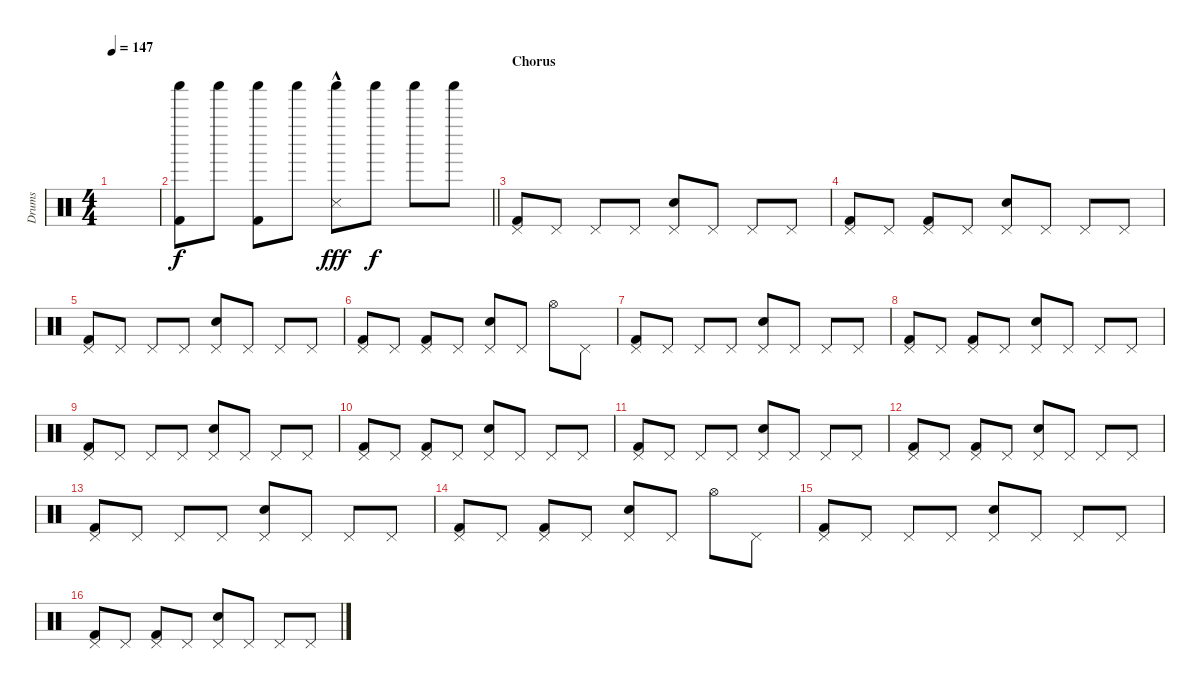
\track ("Drums" "Drums") {instrument percussion}
\staff {score}
\articulation defaults
\ts (4 4)
\tempo 147
\clef neutral
\ks c
|
\barLineRight lightlight
("Kick (hit) 2" "Shaker (hit)").8 "Shaker (hit)".8 ("Kick (hit) 2" "Shaker (hit)").8 "Shaker (hit)".8 ("Snare (side stick) 3"{hac} "Shaker (hit)").8{dy fff} "Shaker (hit)".8{dy f} "Shaker (hit)".8 "Shaker (hit)".8 |
\section ("" "Chorus")
("Kick (hit) 2" "Pedal Hi-Hat (hit)").8 "Pedal Hi-Hat (hit)".8 "Pedal Hi-Hat (hit)".8 "Pedal Hi-Hat (hit)".8 ("Electric Snare (hit)" "Pedal Hi-Hat (hit)").8 "Pedal Hi-Hat (hit)".8 "Pedal Hi-Hat (hit)".8 "Pedal Hi-Hat (hit)".8 |
("Kick (hit) 2" "Pedal Hi-Hat (hit)").8 "Pedal Hi-Hat (hit)".8 ("Kick (hit) 2" "Pedal Hi-Hat (hit)").8 "Pedal Hi-Hat (hit)".8 ("Electric Snare (hit)" "Pedal Hi-Hat (hit)").8 "Pedal Hi-Hat (hit)".8 "Pedal Hi-Hat (hit)".8 "Pedal Hi-Hat (hit)".8 |
("Kick (hit) 2" "Pedal Hi-Hat (hit)").8 "Pedal Hi-Hat (hit)".8 "Pedal Hi-Hat (hit)".8 "Pedal Hi-Hat (hit)".8 ("Electric Snare (hit)" "Pedal Hi-Hat (hit)").8 "Pedal Hi-Hat (hit)".8 "Pedal Hi-Hat (hit)".8 "Pedal Hi-Hat (hit)".8 |
("Kick (hit) 2" "Pedal Hi-Hat (hit)").8 "Pedal Hi-Hat (hit)".8 ("Kick (hit) 2" "Pedal Hi-Hat (hit)").8 "Pedal Hi-Hat (hit)".8 ("Electric Snare (hit)" "Pedal Hi-Hat (hit)").8 "Pedal Hi-Hat (hit)".8 "Hi-Hat (open)".8 "Pedal Hi-Hat (hit)".8 |
("Kick (hit) 2" "Pedal Hi-Hat (hit)").8 "Pedal Hi-Hat (hit)".8 "Pedal Hi-Hat (hit)".8 "Pedal Hi-Hat (hit)".8 ("Electric Snare (hit)" "Pedal Hi-Hat (hit)").8 "Pedal Hi-Hat (hit)".8 "Pedal Hi-Hat (hit)".8 "Pedal Hi-Hat (hit)".8 |
("Kick (hit) 2" "Pedal Hi-Hat (hit)").8 "Pedal Hi-Hat (hit)".8 ("Kick (hit) 2" "Pedal Hi-Hat (hit)").8 "Pedal Hi-Hat (hit)".8 ("Electric Snare (hit)" "Pedal Hi-Hat (hit)").8 "Pedal Hi-Hat (hit)".8 "Pedal Hi-Hat (hit)".8 "Pedal Hi-Hat (hit)".8 |
("Kick (hit) 2" "Pedal Hi-Hat (hit)").8 "Pedal Hi-Hat (hit)".8 "Pedal Hi-Hat (hit)".8 "Pedal Hi-Hat (hit)".8 ("Electric Snare (hit)" "Pedal Hi-Hat (hit)").8 "Pedal Hi-Hat (hit)".8 "Pedal Hi-Hat (hit)".8 "Pedal Hi-Hat (hit)".8 |
("Kick (hit) 2" "Pedal Hi-Hat (hit)").8 "Pedal Hi-Hat (hit)".8 ("Kick (hit) 2" "Pedal Hi-Hat (hit)").8 "Pedal Hi-Hat (hit)".8 ("Electric Snare (hit)" "Pedal Hi-Hat (hit)").8 "Pedal Hi-Hat (hit)".8 "Pedal Hi-Hat (hit)".8 "Pedal Hi-Hat (hit)".8 |
("Kick (hit) 2" "Pedal Hi-Hat (hit)").8 "Pedal Hi-Hat (hit)".8 "Pedal Hi-Hat (hit)".8 "Pedal Hi-Hat (hit)".8 ("Electric Snare (hit)" "Pedal Hi-Hat (hit)").8 "Pedal Hi-Hat (hit)".8 "Pedal Hi-Hat (hit)".8 "Pedal Hi-Hat (hit)".8 |
("Kick (hit) 2" "Pedal Hi-Hat (hit)").8 "Pedal Hi-Hat (hit)".8 ("Kick (hit) 2" "Pedal Hi-Hat (hit)").8 "Pedal Hi-Hat (hit)".8 ("Electric Snare (hit)" "Pedal Hi-Hat (hit)").8 "Pedal Hi-Hat (hit)".8 "Pedal Hi-Hat (hit)".8 "Pedal Hi-Hat (hit)".8 |
("Kick (hit) 2" "Pedal Hi-Hat (hit)").8 "Pedal Hi-Hat (hit)".8 "Pedal Hi-Hat (hit)".8 "Pedal Hi-Hat (hit)".8 ("Electric Snare (hit)" "Pedal Hi-Hat (hit)").8 "Pedal Hi-Hat (hit)".8 "Pedal Hi-Hat (hit)".8 "Pedal Hi-Hat (hit)".8 |
("Kick (hit) 2" "Pedal Hi-Hat (hit)").8 "Pedal Hi-Hat (hit)".8 ("Kick (hit) 2" "Pedal Hi-Hat (hit)").8 "Pedal Hi-Hat (hit)".8 ("Electric Snare (hit)" "Pedal Hi-Hat (hit)").8 "Pedal Hi-Hat (hit)".8 "Hi-Hat (open)".8 "Pedal Hi-Hat (hit)".8 |
("Kick (hit) 2" "Pedal Hi-Hat (hit)").8 "Pedal Hi-Hat (hit)".8 "Pedal Hi-Hat (hit)".8 "Pedal Hi-Hat (hit)".8 ("Electric Snare (hit)" "Pedal Hi-Hat (hit)").8 "Pedal Hi-Hat (hit)".8 "Pedal Hi-Hat (hit)".8 "Pedal Hi-Hat (hit)".8 |
("Kick (hit) 2" "Pedal Hi-Hat (hit)").8 "Pedal Hi-Hat (hit)".8 ("Kick (hit) 2" "Pedal Hi-Hat (hit)").8 "Pedal Hi-Hat (hit)".8 ("Electric Snare (hit)" "Pedal Hi-Hat (hit)").8 "Pedal Hi-Hat (hit)".8 "Pedal Hi-Hat (hit)".8 "Pedal Hi-Hat (hit)".8
